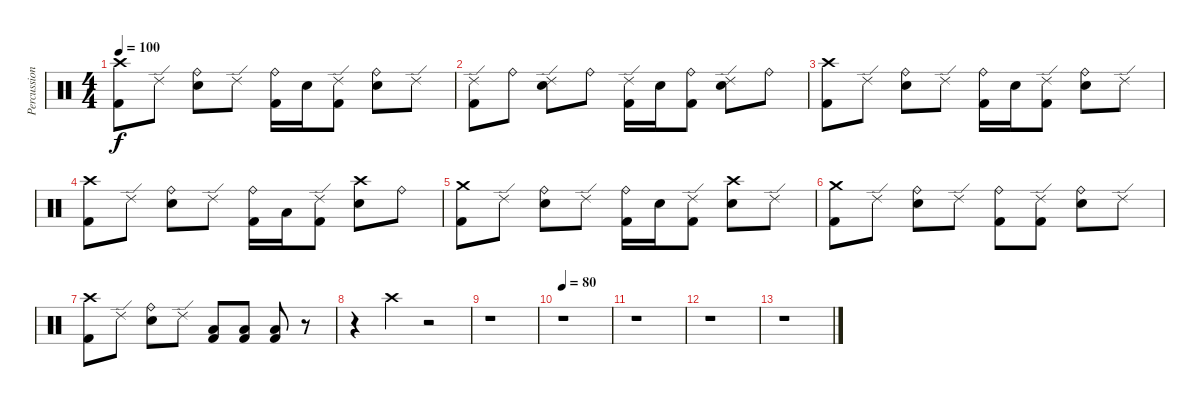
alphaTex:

\track ("Percussion" "Percussion") {instrument percussion}
\staff {score}
\articulation defaults
\ts (4 4)
\tempo 100
\clef neutral
\ks c
("Crash high (hit)" "Kick (hit) 2").8{dy f} "Ride (edge) 2".8 ("Ride (bell)" "Snare (hit) 2").8 "Ride (edge) 2".8 ("Ride (bell)" "Kick (hit) 2").16 "Snare (hit) 2".16 ("Ride (edge) 2" "Kick (hit) 2").8 ("Ride (bell)" "Snare (hit) 2").8 "Ride (edge) 2".8 |
("Ride (edge) 2" "Kick (hit) 2").8 "Ride (bell)".8 ("Ride (edge) 2" "Snare (hit) 2").8 "Ride (bell)".8 ("Ride (edge) 2" "Kick (hit) 2").16 "Snare (hit) 2".16 ("Ride (bell)" "Kick (hit) 2").8 ("Ride (edge) 2" "Snare (hit) 2").8 "Ride (bell)".8 |
("Crash high (hit)" "Kick (hit) 2").8 "Ride (edge) 2".8 ("Ride (bell)" "Snare (hit) 2").8 "Ride (edge) 2".8 ("Ride (bell)" "Kick (hit) 2").16 "Snare (hit) 2".16 ("Ride (edge) 2" "Kick (hit) 2").8 ("Ride (bell)" "Snare (hit) 2").8 "Ride (edge) 2".8 |
("Crash high (hit)" "Kick (hit) 2").8 "Ride (edge) 2".8 ("Ride (bell)" "Snare (hit) 2").8 "Ride (edge) 2".8 ("Ride (bell)" "Kick (hit) 2").16 "Low Tom (hit)".16 ("Ride (edge) 2" "Kick (hit) 2").8 ("Crash high (hit)" "Snare (hit) 2").8 "Ride (bell)".8 |
("Crash medium (hit)" "Kick (hit) 2").8 "Ride (edge) 2".8 ("Ride (bell)" "Snare (hit) 2").8 "Ride (edge) 2".8 ("Ride (bell)" "Kick (hit) 2").16 "Snare (hit) 2".16 ("Ride (edge) 2" "Kick (hit) 2").8 ("Crash high (hit)" "Snare (hit) 2").8 "Ride (edge) 2".8 |
("Crash medium (hit)" "Kick (hit) 2").8 "Ride (edge) 2".8 ("Ride (bell)" "Snare (hit) 2").8 "Ride (edge) 2".8 ("Ride (bell)" "Kick (hit) 2").8 ("Ride (edge) 2" "Kick (hit) 2").8 ("Ride (bell)" "Snare (hit) 2").8 "Ride (edge) 2".8 |
("Crash high (hit)" "Kick (hit) 2").8 "Ride (edge) 2".8 ("Ride (bell)" "Snare (hit) 2").8 "Ride (edge) 2".8 ("Low Tom (hit)" "Kick (hit) 2").8 ("Low Tom (hit)" "Kick (hit) 2").8 ("Low Tom (hit)" "Kick (hit) 2").8 r.8 |
r.4 "Crash high (hit)".4 r.2 |
r.1 |
\tempo 80
r.1 |
r.1 |
r.1 |
r.1
